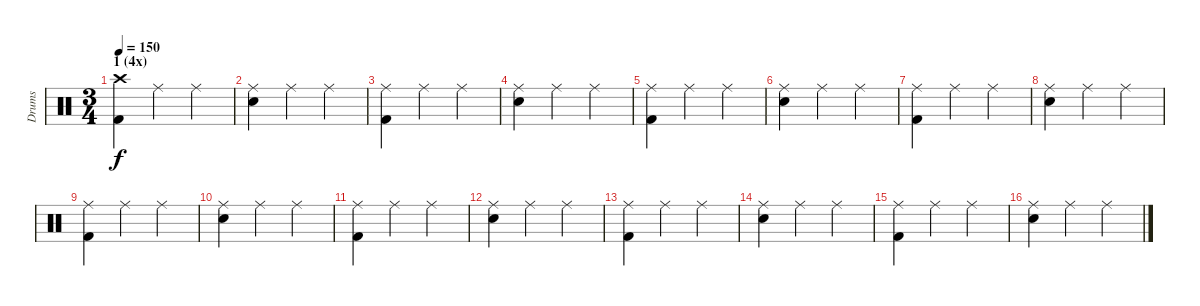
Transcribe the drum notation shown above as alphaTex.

\track ("Drums" "Drums") {instrument percussion}
\staff {score}
\articulation defaults
\ts (3 4)
\section ("" "1 (4x)")
\tempo 150
\clef neutral
\ks c
("Crash high (hit)" "Kick (hit) 2").4{dy f} "Ride (middle)".4 "Ride (middle)".4 |
("Ride (middle)" "Snare (hit) 2").4 "Ride (middle)".4 "Ride (middle)".4 |
("Ride (middle)" "Kick (hit) 2").4 "Ride (middle)".4 "Ride (middle)".4 |
("Ride (middle)" "Snare (hit) 2").4 "Ride (middle)".4 "Ride (middle)".4 |
("Ride (middle)" "Kick (hit) 2").4 "Ride (middle)".4 "Ride (middle)".4 |
("Ride (middle)" "Snare (hit) 2").4 "Ride (middle)".4 "Ride (middle)".4 |
("Ride (middle)" "Kick (hit) 2").4 "Ride (middle)".4 "Ride (middle)".4 |
("Ride (middle)" "Snare (hit) 2").4 "Ride (middle)".4 "Ride (middle)".4 |
("Ride (middle)" "Kick (hit) 2").4 "Ride (middle)".4 "Ride (middle)".4 |
("Ride (middle)" "Snare (hit) 2").4 "Ride (middle)".4 "Ride (middle)".4 |
("Ride (middle)" "Kick (hit) 2").4 "Ride (middle)".4 "Ride (middle)".4 |
("Ride (middle)" "Snare (hit) 2").4 "Ride (middle)".4 "Ride (middle)".4 |
("Ride (middle)" "Kick (hit) 2").4 "Ride (middle)".4 "Ride (middle)".4 |
("Ride (middle)" "Snare (hit) 2").4 "Ride (middle)".4 "Ride (middle)".4 |
("Ride (middle)" "Kick (hit) 2").4 "Ride (middle)".4 "Ride (middle)".4 |
("Ride (middle)" "Snare (hit) 2").4 "Ride (middle)".4 "Ride (middle)".4
